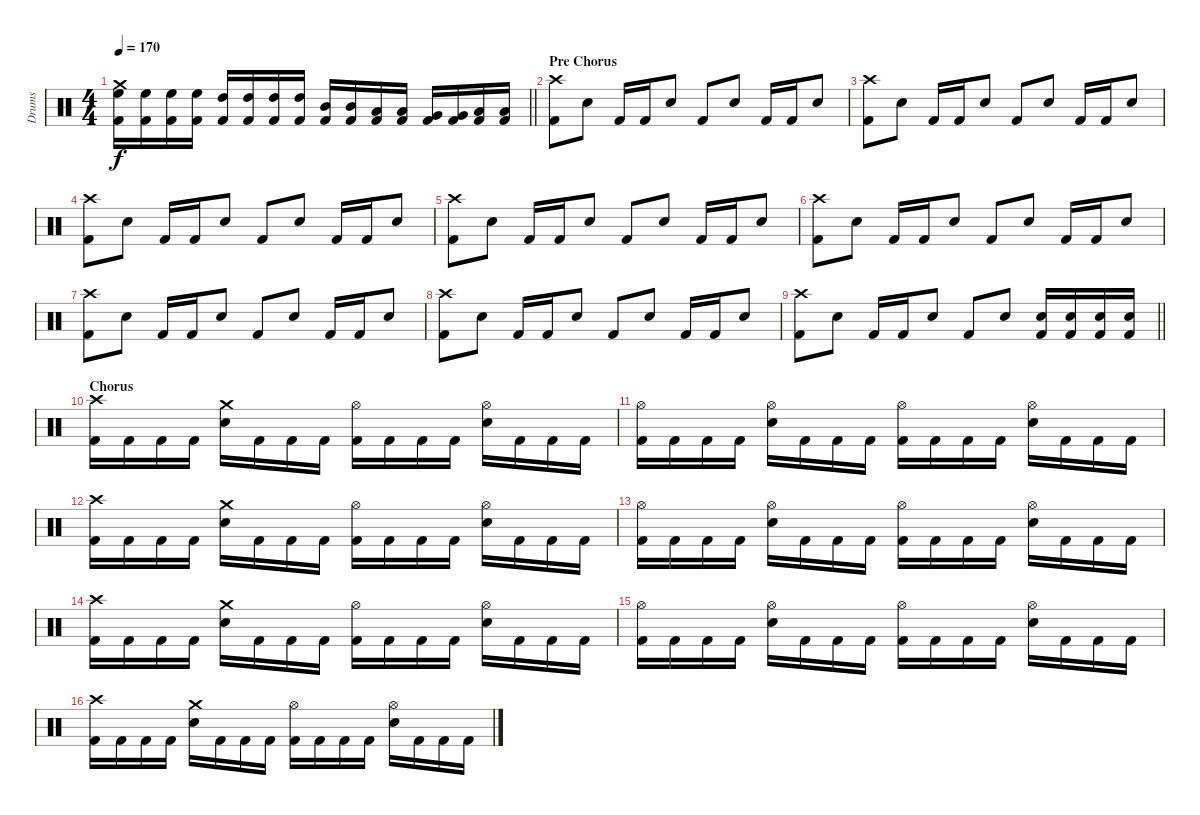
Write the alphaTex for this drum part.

\track ("Drums" "Drums") {instrument percussion}
\staff {score}
\articulation defaults
\ts (4 4)
\tempo 170
\clef neutral
\barLineRight lightlight
\ks c
("Crash medium (hit)" "High Floor Tom (hit)" "Kick (hit) 2").16{dy f} ("High Floor Tom (hit)" "Kick (hit) 2").16 ("High Floor Tom (hit)" "Kick (hit) 2").16 ("High Floor Tom (hit)" "Kick (hit) 2").16 ("High Tom (hit)" "Kick (hit) 2").16 ("High Tom (hit)" "Kick (hit) 2").16 ("High Tom (hit)" "Kick (hit) 2").16 ("High Tom (hit)" "Kick (hit) 2").16 ("Mid Tom (hit)" "Kick (hit) 2").16 ("Mid Tom (hit)" "Kick (hit) 2").16 ("Low Tom (hit)" "Kick (hit) 2").16 ("Low Tom (hit)" "Kick (hit) 2").16 ("Very Low Tom (hit)" "Kick (hit) 2").16 ("Very Low Tom (hit)" "Kick (hit) 2").16 ("Low Floor Tom (hit)" "Kick (hit) 2").16 ("Low Floor Tom (hit)" "Kick (hit) 2").16 |
\section ("" "Pre Chorus")
("Crash high (hit)" "Kick (hit) 2").8 "Snare (hit) 2".8 "Kick (hit) 2".16 "Kick (hit) 2".16 "Snare (hit) 2".8 "Kick (hit) 2".8 "Snare (hit) 2".8 "Kick (hit) 2".16 "Kick (hit) 2".16 "Snare (hit) 2".8 |
("Crash high (hit)" "Kick (hit) 2").8 "Snare (hit) 2".8 "Kick (hit) 2".16 "Kick (hit) 2".16 "Snare (hit) 2".8 "Kick (hit) 2".8 "Snare (hit) 2".8 "Kick (hit) 2".16 "Kick (hit) 2".16 "Snare (hit) 2".8 |
("Crash high (hit)" "Kick (hit) 2").8 "Snare (hit) 2".8 "Kick (hit) 2".16 "Kick (hit) 2".16 "Snare (hit) 2".8 "Kick (hit) 2".8 "Snare (hit) 2".8 "Kick (hit) 2".16 "Kick (hit) 2".16 "Snare (hit) 2".8 |
("Crash high (hit)" "Kick (hit) 2").8 "Snare (hit) 2".8 "Kick (hit) 2".16 "Kick (hit) 2".16 "Snare (hit) 2".8 "Kick (hit) 2".8 "Snare (hit) 2".8 "Kick (hit) 2".16 "Kick (hit) 2".16 "Snare (hit) 2".8 |
("Crash high (hit)" "Kick (hit) 2").8 "Snare (hit) 2".8 "Kick (hit) 2".16 "Kick (hit) 2".16 "Snare (hit) 2".8 "Kick (hit) 2".8 "Snare (hit) 2".8 "Kick (hit) 2".16 "Kick (hit) 2".16 "Snare (hit) 2".8 |
("Crash high (hit)" "Kick (hit) 2").8 "Snare (hit) 2".8 "Kick (hit) 2".16 "Kick (hit) 2".16 "Snare (hit) 2".8 "Kick (hit) 2".8 "Snare (hit) 2".8 "Kick (hit) 2".16 "Kick (hit) 2".16 "Snare (hit) 2".8 |
("Crash high (hit)" "Kick (hit) 2").8 "Snare (hit) 2".8 "Kick (hit) 2".16 "Kick (hit) 2".16 "Snare (hit) 2".8 "Kick (hit) 2".8 "Snare (hit) 2".8 "Kick (hit) 2".16 "Kick (hit) 2".16 "Snare (hit) 2".8 |
\barLineRight lightlight
("Crash high (hit)" "Kick (hit) 2").8 "Snare (hit) 2".8 "Kick (hit) 2".16 "Kick (hit) 2".16 "Snare (hit) 2".8 "Kick (hit) 2".8 "Snare (hit) 2".8 ("Snare (hit) 2" "Kick (hit) 2").16 ("Snare (hit) 2" "Kick (hit) 2").16 ("Snare (hit) 2" "Kick (hit) 2").16 ("Snare (hit) 2" "Kick (hit) 2").16 |
\section ("" "Chorus")
("Crash high (hit)" "Kick (hit) 2").16 "Kick (hit) 2".16 "Kick (hit) 2".16 "Kick (hit) 2".16 ("Crash medium (hit)" "Snare (hit) 2").16 "Kick (hit) 2".16 "Kick (hit) 2".16 "Kick (hit) 2".16 ("Hi-Hat (open)" "Kick (hit) 2").16 "Kick (hit) 2".16 "Kick (hit) 2".16 "Kick (hit) 2".16 ("Hi-Hat (open)" "Snare (hit) 2").16 "Kick (hit) 2".16 "Kick (hit) 2".16 "Kick (hit) 2".16 |
("Hi-Hat (open)" "Kick (hit) 2").16 "Kick (hit) 2".16 "Kick (hit) 2".16 "Kick (hit) 2".16 ("Hi-Hat (open)" "Snare (hit) 2").16 "Kick (hit) 2".16 "Kick (hit) 2".16 "Kick (hit) 2".16 ("Hi-Hat (open)" "Kick (hit) 2").16 "Kick (hit) 2".16 "Kick (hit) 2".16 "Kick (hit) 2".16 ("Hi-Hat (open)" "Snare (hit) 2").16 "Kick (hit) 2".16 "Kick (hit) 2".16 "Kick (hit) 2".16 |
("Crash high (hit)" "Kick (hit) 2").16 "Kick (hit) 2".16 "Kick (hit) 2".16 "Kick (hit) 2".16 ("Crash medium (hit)" "Snare (hit) 2").16 "Kick (hit) 2".16 "Kick (hit) 2".16 "Kick (hit) 2".16 ("Hi-Hat (open)" "Kick (hit) 2").16 "Kick (hit) 2".16 "Kick (hit) 2".16 "Kick (hit) 2".16 ("Hi-Hat (open)" "Snare (hit) 2").16 "Kick (hit) 2".16 "Kick (hit) 2".16 "Kick (hit) 2".16 |
("Hi-Hat (open)" "Kick (hit) 2").16 "Kick (hit) 2".16 "Kick (hit) 2".16 "Kick (hit) 2".16 ("Hi-Hat (open)" "Snare (hit) 2").16 "Kick (hit) 2".16 "Kick (hit) 2".16 "Kick (hit) 2".16 ("Hi-Hat (open)" "Kick (hit) 2").16 "Kick (hit) 2".16 "Kick (hit) 2".16 "Kick (hit) 2".16 ("Hi-Hat (open)" "Snare (hit) 2").16 "Kick (hit) 2".16 "Kick (hit) 2".16 "Kick (hit) 2".16 |
("Crash high (hit)" "Kick (hit) 2").16 "Kick (hit) 2".16 "Kick (hit) 2".16 "Kick (hit) 2".16 ("Crash medium (hit)" "Snare (hit) 2").16 "Kick (hit) 2".16 "Kick (hit) 2".16 "Kick (hit) 2".16 ("Hi-Hat (open)" "Kick (hit) 2").16 "Kick (hit) 2".16 "Kick (hit) 2".16 "Kick (hit) 2".16 ("Hi-Hat (open)" "Snare (hit) 2").16 "Kick (hit) 2".16 "Kick (hit) 2".16 "Kick (hit) 2".16 |
("Hi-Hat (open)" "Kick (hit) 2").16 "Kick (hit) 2".16 "Kick (hit) 2".16 "Kick (hit) 2".16 ("Hi-Hat (open)" "Snare (hit) 2").16 "Kick (hit) 2".16 "Kick (hit) 2".16 "Kick (hit) 2".16 ("Hi-Hat (open)" "Kick (hit) 2").16 "Kick (hit) 2".16 "Kick (hit) 2".16 "Kick (hit) 2".16 ("Hi-Hat (open)" "Snare (hit) 2").16 "Kick (hit) 2".16 "Kick (hit) 2".16 "Kick (hit) 2".16 |
("Crash high (hit)" "Kick (hit) 2").16 "Kick (hit) 2".16 "Kick (hit) 2".16 "Kick (hit) 2".16 ("Crash medium (hit)" "Snare (hit) 2").16 "Kick (hit) 2".16 "Kick (hit) 2".16 "Kick (hit) 2".16 ("Hi-Hat (open)" "Kick (hit) 2").16 "Kick (hit) 2".16 "Kick (hit) 2".16 "Kick (hit) 2".16 ("Hi-Hat (open)" "Snare (hit) 2").16 "Kick (hit) 2".16 "Kick (hit) 2".16 "Kick (hit) 2".16
